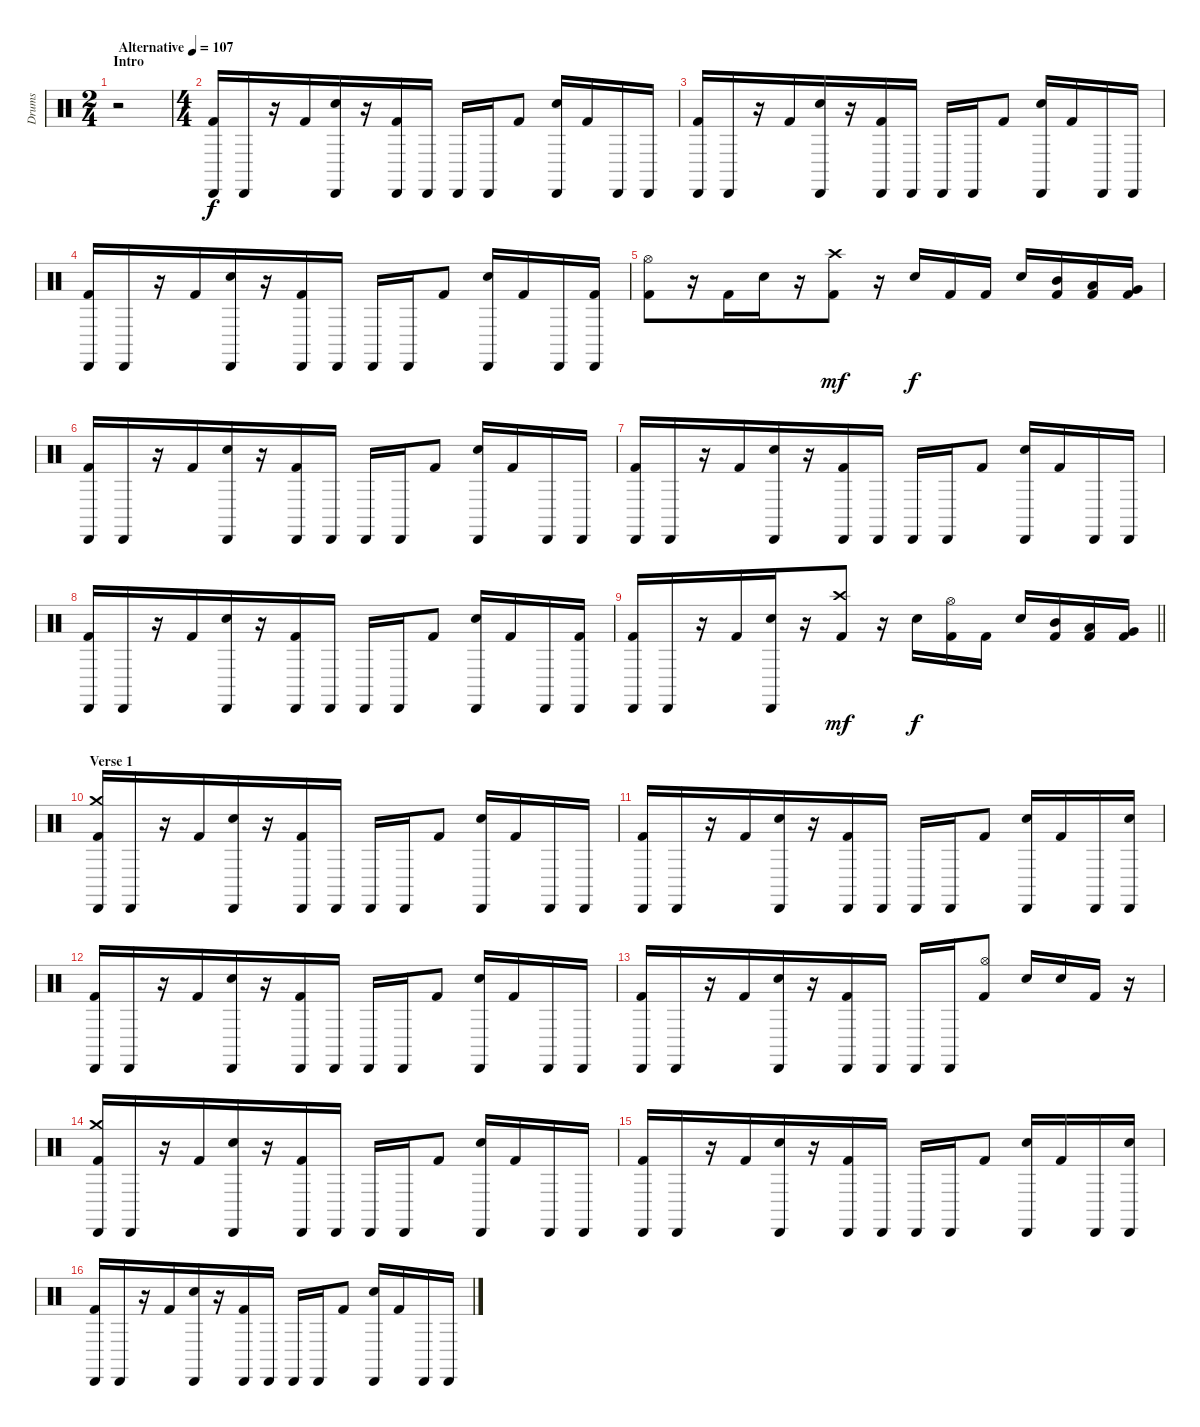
\track ("Drums" "Drums") {instrument percussion}
\staff {score}
\articulation defaults
\ts (2 4)
\section ("" "Intro")
\tempo (107 "Alternative")
\clef neutral
\ks c
r.2{dy f} |
\ts (4 4)
("Cabasa (hit)" "Kick (hit) 2").16 "Cabasa (hit)".16 r.16 "Kick (hit) 2".16{beam merge} ("Cabasa (hit)" "Electric Snare (hit)").16 r.16 ("Cabasa (hit)" "Kick (hit) 2").16 "Cabasa (hit)".16 "Cabasa (hit)".16 "Cabasa (hit)".16 "Kick (hit) 2".8 ("Cabasa (hit)" "Electric Snare (hit)").16 "Kick (hit) 2".16 "Cabasa (hit)".16 "Cabasa (hit)".16 |
("Cabasa (hit)" "Kick (hit) 2").16 "Cabasa (hit)".16 r.16 "Kick (hit) 2".16{beam merge} ("Cabasa (hit)" "Electric Snare (hit)").16 r.16 ("Cabasa (hit)" "Kick (hit) 2").16 "Cabasa (hit)".16 "Cabasa (hit)".16 "Cabasa (hit)".16 "Kick (hit) 2".8 ("Cabasa (hit)" "Electric Snare (hit)").16 "Kick (hit) 2".16 "Cabasa (hit)".16 "Cabasa (hit)".16 |
("Cabasa (hit)" "Kick (hit) 2").16 "Cabasa (hit)".16 r.16 "Kick (hit) 2".16{beam merge} ("Cabasa (hit)" "Electric Snare (hit)").16 r.16 ("Cabasa (hit)" "Kick (hit) 2").16 "Cabasa (hit)".16 "Cabasa (hit)".16 "Cabasa (hit)".16 "Kick (hit) 2".8 ("Cabasa (hit)" "Electric Snare (hit)").16 "Kick (hit) 2".16 "Cabasa (hit)".16 ("Cabasa (hit)" "Kick (hit) 2").16 |
("Hi-Hat (open)" "Kick (hit) 2").8 r.16 "Kick (hit) 2".16{beam merge} "Electric Snare (hit)".16 r.16 ("Crash high (hit)" "Kick (hit) 2").8{dy mf} r.16 "Electric Snare (hit)".16{dy f} "Kick (hit) 2".16 "Kick (hit) 2".16 "Electric Snare (hit)".16 ("Mid Tom (hit)" "Kick (hit) 2").16 ("Low Tom (hit)" "Kick (hit) 2").16 ("Very Low Tom (hit)" "Kick (hit) 2").16 |
("Cabasa (hit)" "Kick (hit) 2").16 "Cabasa (hit)".16 r.16 "Kick (hit) 2".16{beam merge} ("Cabasa (hit)" "Electric Snare (hit)").16 r.16 ("Cabasa (hit)" "Kick (hit) 2").16 "Cabasa (hit)".16 "Cabasa (hit)".16 "Cabasa (hit)".16 "Kick (hit) 2".8 ("Cabasa (hit)" "Electric Snare (hit)").16 "Kick (hit) 2".16 "Cabasa (hit)".16 "Cabasa (hit)".16 |
("Cabasa (hit)" "Kick (hit) 2").16 "Cabasa (hit)".16 r.16 "Kick (hit) 2".16{beam merge} ("Cabasa (hit)" "Electric Snare (hit)").16 r.16 ("Cabasa (hit)" "Kick (hit) 2").16 "Cabasa (hit)".16 "Cabasa (hit)".16 "Cabasa (hit)".16 "Kick (hit) 2".8 ("Cabasa (hit)" "Electric Snare (hit)").16 "Kick (hit) 2".16 "Cabasa (hit)".16 "Cabasa (hit)".16 |
("Cabasa (hit)" "Kick (hit) 2").16 "Cabasa (hit)".16 r.16 "Kick (hit) 2".16{beam merge} ("Cabasa (hit)" "Electric Snare (hit)").16 r.16 ("Cabasa (hit)" "Kick (hit) 2").16 "Cabasa (hit)".16 "Cabasa (hit)".16 "Cabasa (hit)".16 "Kick (hit) 2".8 ("Cabasa (hit)" "Electric Snare (hit)").16 "Kick (hit) 2".16 "Cabasa (hit)".16 ("Cabasa (hit)" "Kick (hit) 2").16 |
\barLineRight lightlight
("Cabasa (hit)" "Kick (hit) 2").16 "Cabasa (hit)".16 r.16 "Kick (hit) 2".16{beam merge} ("Cabasa (hit)" "Electric Snare (hit)").16 r.16 ("Crash high (hit)" "Kick (hit) 2").8{dy mf} r.16 "Electric Snare (hit)".16{dy f} ("Hi-Hat (open)" "Kick (hit) 2").16 "Kick (hit) 2".16 "Electric Snare (hit)".16 ("Mid Tom (hit)" "Kick (hit) 2").16 ("Low Tom (hit)" "Kick (hit) 2").16 ("Very Low Tom (hit)" "Kick (hit) 2").16 |
\section ("" "Verse 1")
("Crash medium (hit)" "Cabasa (hit)" "Kick (hit) 2").16 "Cabasa (hit)".16 r.16 "Kick (hit) 2".16{beam merge} ("Cabasa (hit)" "Electric Snare (hit)").16 r.16 ("Cabasa (hit)" "Kick (hit) 2").16 "Cabasa (hit)".16 "Cabasa (hit)".16 "Cabasa (hit)".16 "Kick (hit) 2".8 ("Cabasa (hit)" "Electric Snare (hit)").16 "Kick (hit) 2".16 "Cabasa (hit)".16 "Cabasa (hit)".16 |
("Cabasa (hit)" "Kick (hit) 2").16 "Cabasa (hit)".16 r.16 "Kick (hit) 2".16{beam merge} ("Cabasa (hit)" "Electric Snare (hit)").16 r.16 ("Cabasa (hit)" "Kick (hit) 2").16 "Cabasa (hit)".16 "Cabasa (hit)".16 "Cabasa (hit)".16 "Kick (hit) 2".8 ("Cabasa (hit)" "Electric Snare (hit)").16 "Kick (hit) 2".16 "Cabasa (hit)".16 ("Cabasa (hit)" "Electric Snare (hit)").16 |
("Cabasa (hit)" "Kick (hit) 2").16 "Cabasa (hit)".16 r.16 "Kick (hit) 2".16{beam merge} ("Cabasa (hit)" "Electric Snare (hit)").16 r.16 ("Cabasa (hit)" "Kick (hit) 2").16 "Cabasa (hit)".16 "Cabasa (hit)".16 "Cabasa (hit)".16 "Kick (hit) 2".8 ("Cabasa (hit)" "Electric Snare (hit)").16 "Kick (hit) 2".16 "Cabasa (hit)".16 "Cabasa (hit)".16 |
("Cabasa (hit)" "Kick (hit) 2").16 "Cabasa (hit)".16 r.16 "Kick (hit) 2".16{beam merge} ("Cabasa (hit)" "Electric Snare (hit)").16 r.16 ("Cabasa (hit)" "Kick (hit) 2").16 "Cabasa (hit)".16 "Cabasa (hit)".16 "Cabasa (hit)".16 ("Hi-Hat (open)" "Kick (hit) 2").8 "Electric Snare (hit)".16 "Electric Snare (hit)".16 "Kick (hit) 2".16 r.16 |
("Crash medium (hit)" "Cabasa (hit)" "Kick (hit) 2").16 "Cabasa (hit)".16 r.16 "Kick (hit) 2".16{beam merge} ("Cabasa (hit)" "Electric Snare (hit)").16 r.16 ("Cabasa (hit)" "Kick (hit) 2").16 "Cabasa (hit)".16 "Cabasa (hit)".16 "Cabasa (hit)".16 "Kick (hit) 2".8 ("Cabasa (hit)" "Electric Snare (hit)").16 "Kick (hit) 2".16 "Cabasa (hit)".16 "Cabasa (hit)".16 |
("Cabasa (hit)" "Kick (hit) 2").16 "Cabasa (hit)".16 r.16 "Kick (hit) 2".16{beam merge} ("Cabasa (hit)" "Electric Snare (hit)").16 r.16 ("Cabasa (hit)" "Kick (hit) 2").16 "Cabasa (hit)".16 "Cabasa (hit)".16 "Cabasa (hit)".16 "Kick (hit) 2".8 ("Cabasa (hit)" "Electric Snare (hit)").16 "Kick (hit) 2".16 "Cabasa (hit)".16 ("Cabasa (hit)" "Electric Snare (hit)").16 |
("Cabasa (hit)" "Kick (hit) 2").16 "Cabasa (hit)".16 r.16 "Kick (hit) 2".16{beam merge} ("Cabasa (hit)" "Electric Snare (hit)").16 r.16 ("Cabasa (hit)" "Kick (hit) 2").16 "Cabasa (hit)".16 "Cabasa (hit)".16 "Cabasa (hit)".16 "Kick (hit) 2".8 ("Cabasa (hit)" "Electric Snare (hit)").16 "Kick (hit) 2".16 "Cabasa (hit)".16 "Cabasa (hit)".16
